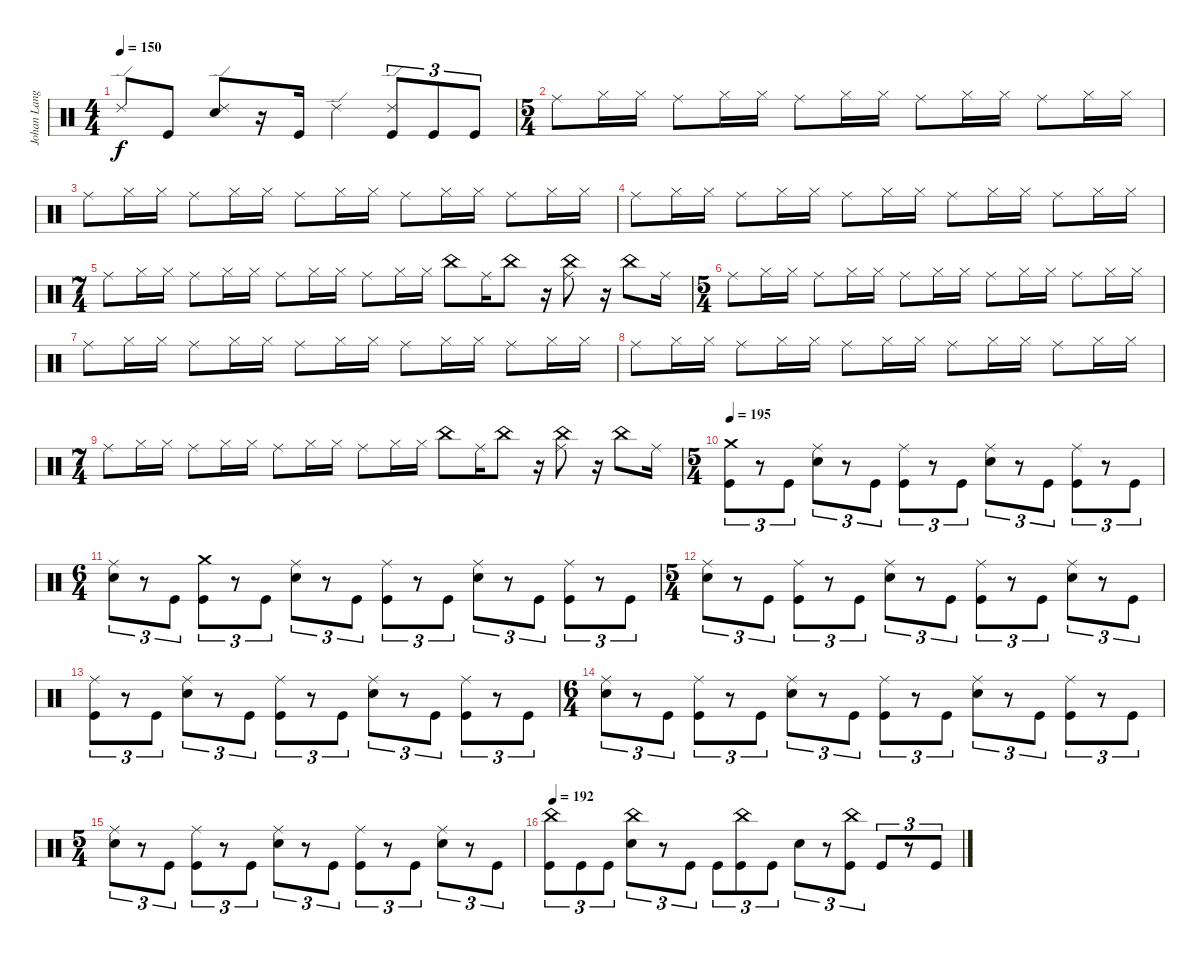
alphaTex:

\track ("Johan Langell" "Johan Lang") {instrument percussion}
\staff {score}
\articulation defaults
\ts (4 4)
\tempo 150
\clef neutral
\ks c "Ride (edge) 2".8{dy f} "Kick (hit)".8
("Ride (edge) 2" "Electric Snare (hit)").8 r.16 "Kick (hit)".16 "Ride (edge) 2".4 ("Ride (edge) 2" "Kick (hit)").8{tu (3 2)} "Kick (hit)".8{tu (3 2)} "Kick (hit)".8{tu (3 2)} |
\ts (5 4)
"Ride (middle)".8 "Hi-Hat (closed)".16 "Hi-Hat (closed)".16 "Ride (middle)".8 "Hi-Hat (closed)".16 "Hi-Hat (closed)".16 "Ride (middle)".8 "Hi-Hat (closed)".16 "Hi-Hat (closed)".16 "Ride (middle)".8 "Hi-Hat (closed)".16 "Hi-Hat (closed)".16 "Ride (middle)".8 "Hi-Hat (closed)".16 "Hi-Hat (closed)".16 |
"Ride (middle)".8 "Hi-Hat (closed)".16 "Hi-Hat (closed)".16 "Ride (middle)".8 "Hi-Hat (closed)".16 "Hi-Hat (closed)".16 "Ride (middle)".8 "Hi-Hat (closed)".16 "Hi-Hat (closed)".16 "Ride (middle)".8 "Hi-Hat (closed)".16 "Hi-Hat (closed)".16 "Ride (middle)".8 "Hi-Hat (closed)".16 "Hi-Hat (closed)".16 |
"Ride (middle)".8 "Hi-Hat (closed)".16 "Hi-Hat (closed)".16 "Ride (middle)".8 "Hi-Hat (closed)".16 "Hi-Hat (closed)".16 "Ride (middle)".8 "Hi-Hat (closed)".16 "Hi-Hat (closed)".16 "Ride (middle)".8 "Hi-Hat (closed)".16 "Hi-Hat (closed)".16 "Ride (middle)".8 "Hi-Hat (closed)".16 "Hi-Hat (closed)".16 |
\ts (7 4)
"Ride (middle)".8 "Hi-Hat (closed)".16 "Hi-Hat (closed)".16 "Ride (middle)".8 "Hi-Hat (closed)".16 "Hi-Hat (closed)".16 "Ride (middle)".8 "Hi-Hat (closed)".16 "Hi-Hat (closed)".16 "Ride (middle)".8 "Hi-Hat (closed)".16 "Hi-Hat (closed)".16 "China (hit)".8 "Ride (middle)".16 "China (hit)".8 r.16 ("China (hit)" "Ride (middle)").8 r.16 "China (hit)".8 "Ride (middle)".16 |
\ts (5 4)
"Ride (middle)".8 "Hi-Hat (closed)".16 "Hi-Hat (closed)".16 "Ride (middle)".8 "Hi-Hat (closed)".16 "Hi-Hat (closed)".16 "Ride (middle)".8 "Hi-Hat (closed)".16 "Hi-Hat (closed)".16 "Ride (middle)".8 "Hi-Hat (closed)".16 "Hi-Hat (closed)".16 "Ride (middle)".8 "Hi-Hat (closed)".16 "Hi-Hat (closed)".16 |
"Ride (middle)".8 "Hi-Hat (closed)".16 "Hi-Hat (closed)".16 "Ride (middle)".8 "Hi-Hat (closed)".16 "Hi-Hat (closed)".16 "Ride (middle)".8 "Hi-Hat (closed)".16 "Hi-Hat (closed)".16 "Ride (middle)".8 "Hi-Hat (closed)".16 "Hi-Hat (closed)".16 "Ride (middle)".8 "Hi-Hat (closed)".16 "Hi-Hat (closed)".16 |
"Ride (middle)".8 "Hi-Hat (closed)".16 "Hi-Hat (closed)".16 "Ride (middle)".8 "Hi-Hat (closed)".16 "Hi-Hat (closed)".16 "Ride (middle)".8 "Hi-Hat (closed)".16 "Hi-Hat (closed)".16 "Ride (middle)".8 "Hi-Hat (closed)".16 "Hi-Hat (closed)".16 "Ride (middle)".8 "Hi-Hat (closed)".16 "Hi-Hat (closed)".16 |
\ts (7 4)
"Ride (middle)".8 "Hi-Hat (closed)".16 "Hi-Hat (closed)".16 "Ride (middle)".8 "Hi-Hat (closed)".16 "Hi-Hat (closed)".16 "Ride (middle)".8 "Hi-Hat (closed)".16 "Hi-Hat (closed)".16 "Ride (middle)".8 "Hi-Hat (closed)".16 "Hi-Hat (closed)".16 "China (hit)".8 "Ride (middle)".16 "China (hit)".8 r.16 ("China (hit)" "Ride (middle)").8 r.16 "China (hit)".8 "Ride (middle)".16 |
\ts (5 4)
\tempo 195
("Crash medium (hit)" "Kick (hit)").8{tu (3 2)} r.8{tu (3 2)} "Kick (hit)".8{tu (3 2)} ("Ride (middle)" "Electric Snare (hit)").8{tu (3 2)} r.8{tu (3 2)} "Kick (hit)".8{tu (3 2)} ("Ride (middle)" "Kick (hit)").8{tu (3 2)} r.8{tu (3 2)} "Kick (hit)".8{tu (3 2)} ("Ride (middle)" "Electric Snare (hit)").8{tu (3 2)} r.8{tu (3 2)} "Kick (hit)".8{tu (3 2)} ("Ride (middle)" "Kick (hit)").8{tu (3 2)} r.8{tu (3 2)} "Kick (hit)".8{tu (3 2)} |
\ts (6 4)
("Ride (middle)" "Electric Snare (hit)").8{tu (3 2)} r.8{tu (3 2)} "Kick (hit)".8{tu (3 2)} ("Crash medium (hit)" "Kick (hit)").8{tu (3 2)} r.8{tu (3 2)} "Kick (hit)".8{tu (3 2)} ("Ride (middle)" "Electric Snare (hit)").8{tu (3 2)} r.8{tu (3 2)} "Kick (hit)".8{tu (3 2)} ("Ride (middle)" "Kick (hit)").8{tu (3 2)} r.8{tu (3 2)} "Kick (hit)".8{tu (3 2)} ("Ride (middle)" "Electric Snare (hit)").8{tu (3 2)} r.8{tu (3 2)} "Kick (hit)".8{tu (3 2)} ("Ride (middle)" "Kick (hit)").8{tu (3 2)} r.8{tu (3 2)} "Kick (hit)".8{tu (3 2)} |
\ts (5 4)
("Ride (middle)" "Electric Snare (hit)").8{tu (3 2)} r.8{tu (3 2)} "Kick (hit)".8{tu (3 2)} ("Ride (middle)" "Kick (hit)").8{tu (3 2)} r.8{tu (3 2)} "Kick (hit)".8{tu (3 2)} ("Ride (middle)" "Electric Snare (hit)").8{tu (3 2)} r.8{tu (3 2)} "Kick (hit)".8{tu (3 2)} ("Ride (middle)" "Kick (hit)").8{tu (3 2)} r.8{tu (3 2)} "Kick (hit)".8{tu (3 2)} ("Ride (middle)" "Electric Snare (hit)").8{tu (3 2)} r.8{tu (3 2)} "Kick (hit)".8{tu (3 2)} |
("Ride (middle)" "Kick (hit)").8{tu (3 2)} r.8{tu (3 2)} "Kick (hit)".8{tu (3 2)} ("Ride (middle)" "Electric Snare (hit)").8{tu (3 2)} r.8{tu (3 2)} "Kick (hit)".8{tu (3 2)} ("Ride (middle)" "Kick (hit)").8{tu (3 2)} r.8{tu (3 2)} "Kick (hit)".8{tu (3 2)} ("Ride (middle)" "Electric Snare (hit)").8{tu (3 2)} r.8{tu (3 2)} "Kick (hit)".8{tu (3 2)} ("Ride (middle)" "Kick (hit)").8{tu (3 2)} r.8{tu (3 2)} "Kick (hit)".8{tu (3 2)} |
\ts (6 4)
("Ride (middle)" "Electric Snare (hit)").8{tu (3 2)} r.8{tu (3 2)} "Kick (hit)".8{tu (3 2)} ("Ride (middle)" "Kick (hit)").8{tu (3 2)} r.8{tu (3 2)} "Kick (hit)".8{tu (3 2)} ("Ride (middle)" "Electric Snare (hit)").8{tu (3 2)} r.8{tu (3 2)} "Kick (hit)".8{tu (3 2)} ("Ride (middle)" "Kick (hit)").8{tu (3 2)} r.8{tu (3 2)} "Kick (hit)".8{tu (3 2)} ("Ride (middle)" "Electric Snare (hit)").8{tu (3 2)} r.8{tu (3 2)} "Kick (hit)".8{tu (3 2)} ("Ride (middle)" "Kick (hit)").8{tu (3 2)} r.8{tu (3 2)} "Kick (hit)".8{tu (3 2)} |
\ts (5 4)
("Ride (middle)" "Electric Snare (hit)").8{tu (3 2)} r.8{tu (3 2)} "Kick (hit)".8{tu (3 2)} ("Ride (middle)" "Kick (hit)").8{tu (3 2)} r.8{tu (3 2)} "Kick (hit)".8{tu (3 2)} ("Ride (middle)" "Electric Snare (hit)").8{tu (3 2)} r.8{tu (3 2)} "Kick (hit)".8{tu (3 2)} ("Ride (middle)" "Kick (hit)").8{tu (3 2)} r.8{tu (3 2)} "Kick (hit)".8{tu (3 2)} ("Ride (middle)" "Electric Snare (hit)").8{tu (3 2)} r.8{tu (3 2)} "Kick (hit)".8{tu (3 2)} |
\tempo 192
("China (hit)" "Kick (hit)").8{tu (3 2)} "Kick (hit)".8{tu (3 2)} "Kick (hit)".8{tu (3 2)} ("China (hit)" "Electric Snare (hit)").8{tu (3 2)} r.8{tu (3 2)} "Kick (hit)".8{tu (3 2)} "Kick (hit)".8{tu (3 2)} ("China (hit)" "Kick (hit)").8{tu (3 2)} "Kick (hit)".8{tu (3 2)} "Electric Snare (hit)".8{tu (3 2)} r.8{tu (3 2)} ("China (hit)" "Kick (hit)").8{tu (3 2)} "Kick (hit)".8{tu (3 2)} r.8{tu (3 2)} "Kick (hit)".8{tu (3 2)}
